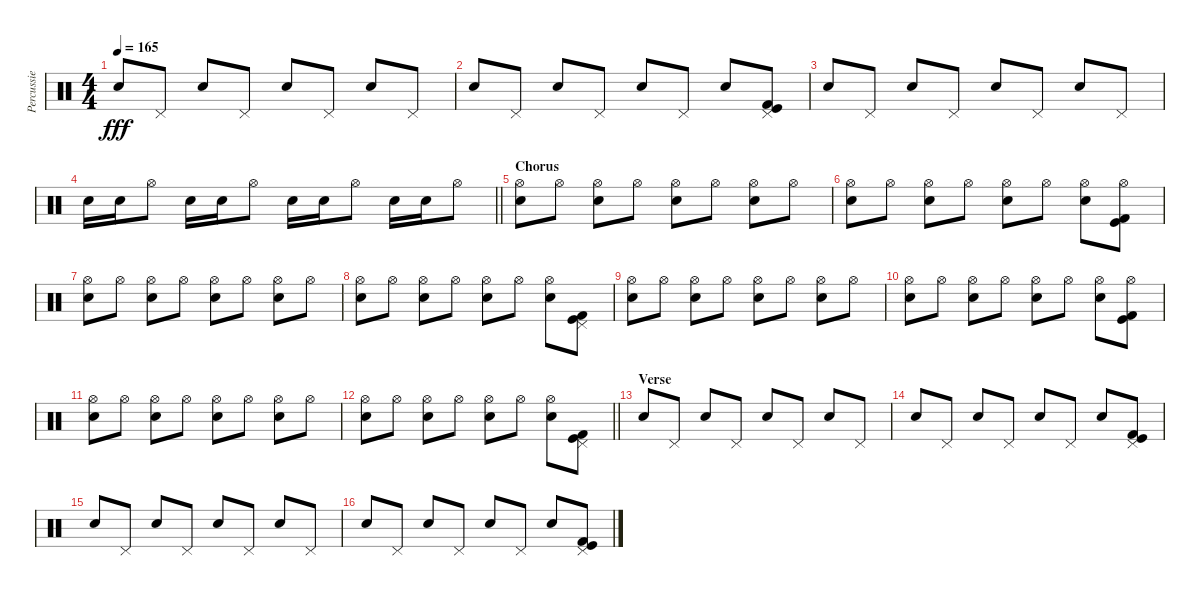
\track ("Percussie" "Percussie") {instrument percussion}
\staff {score}
\articulation defaults
\ts (4 4)
\tempo 165
\clef neutral
\ks c "Snare (hit) 2".8{dy fff} "Pedal Hi-Hat (hit)".8 "Snare (hit) 2".8 "Pedal Hi-Hat (hit)".8 "Snare (hit) 2".8 "Pedal Hi-Hat (hit)".8 "Snare (hit) 2".8 "Pedal Hi-Hat (hit)".8
|
"Snare (hit) 2".8 "Pedal Hi-Hat (hit)".8 "Snare (hit) 2".8 "Pedal Hi-Hat (hit)".8 "Snare (hit) 2".8 "Pedal Hi-Hat (hit)".8 "Snare (hit) 2".8 ("Pedal Hi-Hat (hit)" "Kick (hit)" "Kick (hit) 2").8 |
"Snare (hit) 2".8 "Pedal Hi-Hat (hit)".8 "Snare (hit) 2".8 "Pedal Hi-Hat (hit)".8 "Snare (hit) 2".8 "Pedal Hi-Hat (hit)".8 "Snare (hit) 2".8 "Pedal Hi-Hat (hit)".8 |
\barLineRight lightlight "Snare (hit) 2".16 "Snare (hit) 2".16 "Hi-Hat (open)".8 "Snare (hit) 2".16 "Snare (hit) 2".16 "Hi-Hat (open)".8 "Snare (hit) 2".16 "Snare (hit) 2".16 "Hi-Hat (open)".8 "Snare (hit) 2".16 "Snare (hit) 2".16 "Hi-Hat (open)".8
|
\section ("" "Chorus")
("Hi-Hat (open)" "Snare (hit) 2").8 "Hi-Hat (open)".8 ("Hi-Hat (open)" "Snare (hit) 2").8 "Hi-Hat (open)".8 ("Hi-Hat (open)" "Snare (hit) 2").8 "Hi-Hat (open)".8 ("Hi-Hat (open)" "Snare (hit) 2").8 "Hi-Hat (open)".8 |
("Hi-Hat (open)" "Snare (hit) 2").8 "Hi-Hat (open)".8 ("Hi-Hat (open)" "Snare (hit) 2").8 "Hi-Hat (open)".8 ("Hi-Hat (open)" "Snare (hit) 2").8 "Hi-Hat (open)".8 ("Hi-Hat (open)" "Snare (hit) 2").8 ("Hi-Hat (open)" "Kick (hit)" "Kick (hit) 2").8 |
("Hi-Hat (open)" "Snare (hit) 2").8 "Hi-Hat (open)".8 ("Hi-Hat (open)" "Snare (hit) 2").8 "Hi-Hat (open)".8 ("Hi-Hat (open)" "Snare (hit) 2").8 "Hi-Hat (open)".8 ("Hi-Hat (open)" "Snare (hit) 2").8 "Hi-Hat (open)".8 |
("Hi-Hat (open)" "Snare (hit) 2").8 "Hi-Hat (open)".8 ("Hi-Hat (open)" "Snare (hit) 2").8 "Hi-Hat (open)".8 ("Hi-Hat (open)" "Snare (hit) 2").8 "Hi-Hat (open)".8 ("Hi-Hat (open)" "Snare (hit) 2").8 ("Pedal Hi-Hat (hit)" "Kick (hit)" "Kick (hit) 2").8 |
("Hi-Hat (open)" "Snare (hit) 2").8 "Hi-Hat (open)".8 ("Hi-Hat (open)" "Snare (hit) 2").8 "Hi-Hat (open)".8 ("Hi-Hat (open)" "Snare (hit) 2").8 "Hi-Hat (open)".8 ("Hi-Hat (open)" "Snare (hit) 2").8 "Hi-Hat (open)".8 |
("Hi-Hat (open)" "Snare (hit) 2").8 "Hi-Hat (open)".8 ("Hi-Hat (open)" "Snare (hit) 2").8 "Hi-Hat (open)".8 ("Hi-Hat (open)" "Snare (hit) 2").8 "Hi-Hat (open)".8 ("Hi-Hat (open)" "Snare (hit) 2").8 ("Hi-Hat (open)" "Kick (hit)" "Kick (hit) 2").8 |
("Hi-Hat (open)" "Snare (hit) 2").8 "Hi-Hat (open)".8 ("Hi-Hat (open)" "Snare (hit) 2").8 "Hi-Hat (open)".8 ("Hi-Hat (open)" "Snare (hit) 2").8 "Hi-Hat (open)".8 ("Hi-Hat (open)" "Snare (hit) 2").8 "Hi-Hat (open)".8 |
\barLineRight lightlight
("Hi-Hat (open)" "Snare (hit) 2").8 "Hi-Hat (open)".8 ("Hi-Hat (open)" "Snare (hit) 2").8 "Hi-Hat (open)".8 ("Hi-Hat (open)" "Snare (hit) 2").8 "Hi-Hat (open)".8 ("Hi-Hat (open)" "Snare (hit) 2").8 ("Pedal Hi-Hat (hit)" "Kick (hit)" "Kick (hit) 2").8 |
\section ("" "Verse")
"Snare (hit) 2".8 "Pedal Hi-Hat (hit)".8 "Snare (hit) 2".8 "Pedal Hi-Hat (hit)".8 "Snare (hit) 2".8 "Pedal Hi-Hat (hit)".8 "Snare (hit) 2".8 "Pedal Hi-Hat (hit)".8 |
"Snare (hit) 2".8 "Pedal Hi-Hat (hit)".8 "Snare (hit) 2".8 "Pedal Hi-Hat (hit)".8 "Snare (hit) 2".8 "Pedal Hi-Hat (hit)".8 "Snare (hit) 2".8 ("Pedal Hi-Hat (hit)" "Kick (hit)" "Kick (hit) 2").8 |
"Snare (hit) 2".8 "Pedal Hi-Hat (hit)".8 "Snare (hit) 2".8 "Pedal Hi-Hat (hit)".8 "Snare (hit) 2".8 "Pedal Hi-Hat (hit)".8 "Snare (hit) 2".8 "Pedal Hi-Hat (hit)".8 |
"Snare (hit) 2".8 "Pedal Hi-Hat (hit)".8 "Snare (hit) 2".8 "Pedal Hi-Hat (hit)".8 "Snare (hit) 2".8 "Pedal Hi-Hat (hit)".8 "Snare (hit) 2".8 ("Pedal Hi-Hat (hit)" "Kick (hit)" "Kick (hit) 2").8
